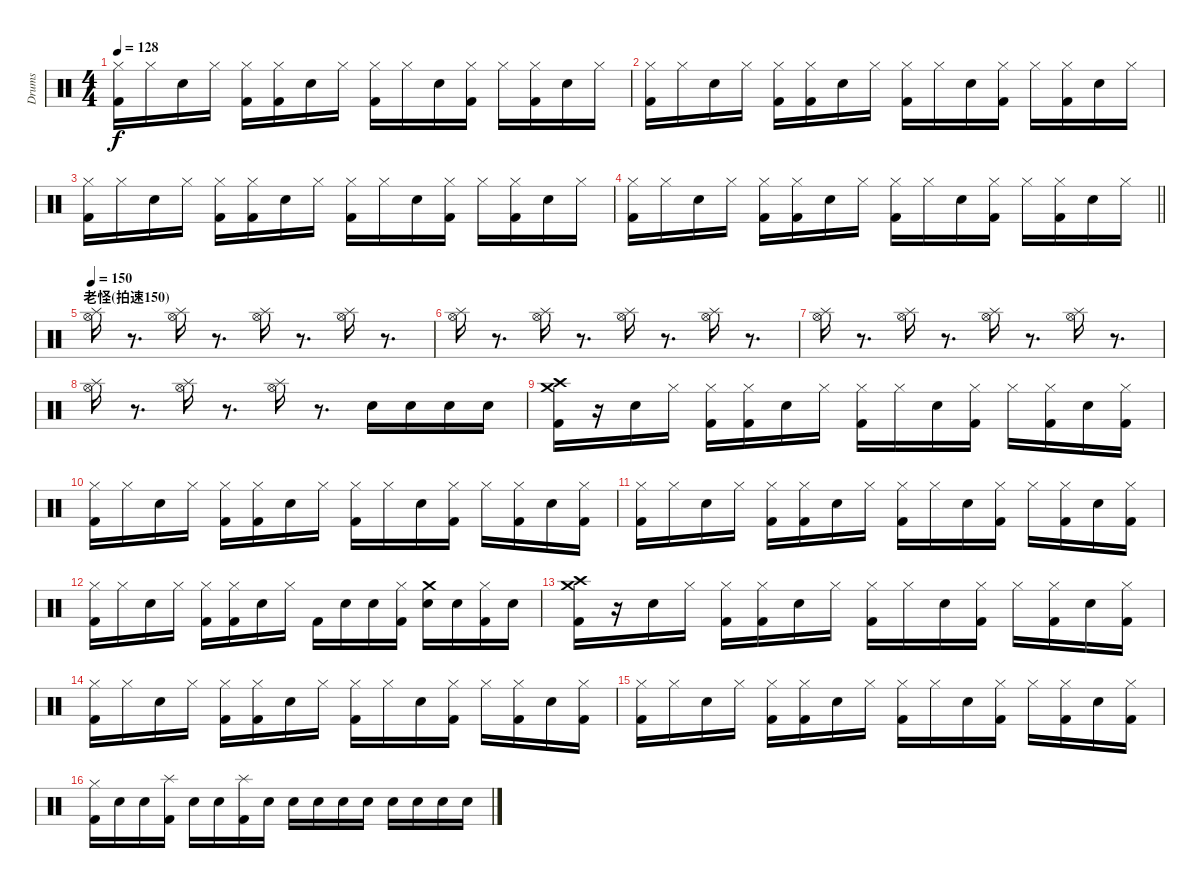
\track ("Drums" "Drums") {instrument percussion}
\staff {score}
\articulation defaults
\ts (4 4)
\tempo 128
\clef neutral
\ks c
("Hi-Hat (closed)" "Kick (hit) 2").16{dy f volume 0} "Hi-Hat (closed)".16 "Snare (hit) 2".16 "Hi-Hat (closed)".16 ("Hi-Hat (closed)" "Kick (hit) 2").16 ("Hi-Hat (closed)" "Kick (hit) 2").16 "Snare (hit) 2".16 "Hi-Hat (closed)".16 ("Hi-Hat (closed)" "Kick (hit) 2").16 "Hi-Hat (closed)".16 "Snare (hit) 2".16 ("Hi-Hat (closed)" "Kick (hit) 2").16 "Hi-Hat (closed)".16 ("Hi-Hat (closed)" "Kick (hit) 2").16 "Snare (hit) 2".16 "Hi-Hat (closed)".16 |
("Hi-Hat (closed)" "Kick (hit) 2").16 "Hi-Hat (closed)".16 "Snare (hit) 2".16 "Hi-Hat (closed)".16 ("Hi-Hat (closed)" "Kick (hit) 2").16 ("Hi-Hat (closed)" "Kick (hit) 2").16 "Snare (hit) 2".16 "Hi-Hat (closed)".16 ("Hi-Hat (closed)" "Kick (hit) 2").16 "Hi-Hat (closed)".16 "Snare (hit) 2".16 ("Hi-Hat (closed)" "Kick (hit) 2").16 "Hi-Hat (closed)".16 ("Hi-Hat (closed)" "Kick (hit) 2").16 "Snare (hit) 2".16 "Hi-Hat (closed)".16 |
("Hi-Hat (closed)" "Kick (hit) 2").16 "Hi-Hat (closed)".16 "Snare (hit) 2".16 "Hi-Hat (closed)".16 ("Hi-Hat (closed)" "Kick (hit) 2").16 ("Hi-Hat (closed)" "Kick (hit) 2").16 "Snare (hit) 2".16 "Hi-Hat (closed)".16 ("Hi-Hat (closed)" "Kick (hit) 2").16 "Hi-Hat (closed)".16 "Snare (hit) 2".16 ("Hi-Hat (closed)" "Kick (hit) 2").16 "Hi-Hat (closed)".16 ("Hi-Hat (closed)" "Kick (hit) 2").16 "Snare (hit) 2".16 "Hi-Hat (closed)".16 |
\barLineRight lightlight
("Hi-Hat (closed)" "Kick (hit) 2").16 "Hi-Hat (closed)".16 "Snare (hit) 2".16 "Hi-Hat (closed)".16 ("Hi-Hat (closed)" "Kick (hit) 2").16 ("Hi-Hat (closed)" "Kick (hit) 2").16 "Snare (hit) 2".16 "Hi-Hat (closed)".16 ("Hi-Hat (closed)" "Kick (hit) 2").16 "Hi-Hat (closed)".16 "Snare (hit) 2".16 ("Hi-Hat (closed)" "Kick (hit) 2").16 "Hi-Hat (closed)".16 ("Hi-Hat (closed)" "Kick (hit) 2").16 "Snare (hit) 2".16 "Hi-Hat (closed)".16 |
\section ("" "老怪(拍速150)")
\tempo 150
("Splash (hit)" "Hi-Hat (open)").16{volume 13} r.8{d} ("Splash (hit)" "Hi-Hat (open)").16 r.8{d} ("Splash (hit)" "Hi-Hat (open)").16 r.8{d} ("Splash (hit)" "Hi-Hat (open)").16 r.8{d} |
("Splash (hit)" "Hi-Hat (open)").16 r.8{d} ("Splash (hit)" "Hi-Hat (open)").16 r.8{d} ("Splash (hit)" "Hi-Hat (open)").16 r.8{d} ("Splash (hit)" "Hi-Hat (open)").16 r.8{d} |
("Splash (hit)" "Hi-Hat (open)").16 r.8{d} ("Splash (hit)" "Hi-Hat (open)").16 r.8{d} ("Splash (hit)" "Hi-Hat (open)").16 r.8{d} ("Splash (hit)" "Hi-Hat (open)").16 r.8{d} |
("Splash (hit)" "Hi-Hat (open)").16 r.8{d} ("Splash (hit)" "Hi-Hat (open)").16 r.8{d} ("Splash (hit)" "Hi-Hat (open)").16 r.8{d} "Snare (hit) 2".16 "Snare (hit) 2".16 "Snare (hit) 2".16 "Snare (hit) 2".16 |
("Crash medium (hit)" "Crash high (hit)" "Kick (hit) 2").16 r.16 "Snare (hit) 2".16 "Hi-Hat (closed)".16 ("Hi-Hat (closed)" "Kick (hit) 2").16 ("Hi-Hat (closed)" "Kick (hit) 2").16 "Snare (hit) 2".16 "Hi-Hat (closed)".16 ("Hi-Hat (closed)" "Kick (hit) 2").16 "Hi-Hat (closed)".16 "Snare (hit) 2".16 ("Hi-Hat (closed)" "Kick (hit) 2").16 "Hi-Hat (closed)".16 ("Hi-Hat (closed)" "Kick (hit) 2").16 "Snare (hit) 2".16 ("Hi-Hat (closed)" "Kick (hit) 2").16 |
("Hi-Hat (closed)" "Kick (hit) 2").16 "Hi-Hat (closed)".16 "Snare (hit) 2".16 "Hi-Hat (closed)".16 ("Hi-Hat (closed)" "Kick (hit) 2").16 ("Hi-Hat (closed)" "Kick (hit) 2").16 "Snare (hit) 2".16 "Hi-Hat (closed)".16 ("Hi-Hat (closed)" "Kick (hit) 2").16 "Hi-Hat (closed)".16 "Snare (hit) 2".16 ("Hi-Hat (closed)" "Kick (hit) 2").16 "Hi-Hat (closed)".16 ("Hi-Hat (closed)" "Kick (hit) 2").16 "Snare (hit) 2".16 ("Hi-Hat (closed)" "Kick (hit) 2").16 |
("Hi-Hat (closed)" "Kick (hit) 2").16 "Hi-Hat (closed)".16 "Snare (hit) 2".16 "Hi-Hat (closed)".16 ("Hi-Hat (closed)" "Kick (hit) 2").16 ("Hi-Hat (closed)" "Kick (hit) 2").16 "Snare (hit) 2".16 "Hi-Hat (closed)".16 ("Hi-Hat (closed)" "Kick (hit) 2").16 "Hi-Hat (closed)".16 "Snare (hit) 2".16 ("Hi-Hat (closed)" "Kick (hit) 2").16 "Hi-Hat (closed)".16 ("Hi-Hat (closed)" "Kick (hit) 2").16 "Snare (hit) 2".16 ("Hi-Hat (closed)" "Kick (hit) 2").16 |
("Hi-Hat (closed)" "Kick (hit) 2").16 "Hi-Hat (closed)".16 "Snare (hit) 2".16 "Hi-Hat (closed)".16 ("Hi-Hat (closed)" "Kick (hit) 2").16 ("Hi-Hat (closed)" "Kick (hit) 2").16 "Snare (hit) 2".16 "Hi-Hat (closed)".16 "Kick (hit) 2".16 "Snare (hit) 2".16 "Snare (hit) 2".16 ("Hi-Hat (closed)" "Kick (hit) 2").16 ("Crash medium (hit)" "Snare (hit) 2").16 "Snare (hit) 2".16 ("Hi-Hat (closed)" "Kick (hit) 2").16 "Snare (hit) 2".16 |
("Crash medium (hit)" "Crash high (hit)" "Kick (hit) 2").16 r.16 "Snare (hit) 2".16 "Hi-Hat (closed)".16 ("Hi-Hat (closed)" "Kick (hit) 2").16 ("Hi-Hat (closed)" "Kick (hit) 2").16 "Snare (hit) 2".16 "Hi-Hat (closed)".16 ("Hi-Hat (closed)" "Kick (hit) 2").16 "Hi-Hat (closed)".16 "Snare (hit) 2".16 ("Hi-Hat (closed)" "Kick (hit) 2").16 "Hi-Hat (closed)".16 ("Hi-Hat (closed)" "Kick (hit) 2").16 "Snare (hit) 2".16 ("Hi-Hat (closed)" "Kick (hit) 2").16 |
("Hi-Hat (closed)" "Kick (hit) 2").16 "Hi-Hat (closed)".16 "Snare (hit) 2".16 "Hi-Hat (closed)".16 ("Hi-Hat (closed)" "Kick (hit) 2").16 ("Hi-Hat (closed)" "Kick (hit) 2").16 "Snare (hit) 2".16 "Hi-Hat (closed)".16 ("Hi-Hat (closed)" "Kick (hit) 2").16 "Hi-Hat (closed)".16 "Snare (hit) 2".16 ("Hi-Hat (closed)" "Kick (hit) 2").16 "Hi-Hat (closed)".16 ("Hi-Hat (closed)" "Kick (hit) 2").16 "Snare (hit) 2".16 ("Hi-Hat (closed)" "Kick (hit) 2").16 |
("Hi-Hat (closed)" "Kick (hit) 2").16 "Hi-Hat (closed)".16 "Snare (hit) 2".16 "Hi-Hat (closed)".16 ("Hi-Hat (closed)" "Kick (hit) 2").16 ("Hi-Hat (closed)" "Kick (hit) 2").16 "Snare (hit) 2".16 "Hi-Hat (closed)".16 ("Hi-Hat (closed)" "Kick (hit) 2").16 "Hi-Hat (closed)".16 "Snare (hit) 2".16 ("Hi-Hat (closed)" "Kick (hit) 2").16 "Hi-Hat (closed)".16 ("Hi-Hat (closed)" "Kick (hit) 2").16 "Snare (hit) 2".16 ("Hi-Hat (closed)" "Kick (hit) 2").16 |
("Hi-Hat (closed)" "Kick (hit) 2").16 "Snare (hit) 2".16 "Snare (hit) 2".16 ("Splash (hit)" "Kick (hit) 2").16 "Snare (hit) 2".16 "Snare (hit) 2".16 ("Splash (hit)" "Kick (hit) 2").16 "Snare (hit) 2".16 "Snare (hit) 2".16 "Snare (hit) 2".16 "Snare (hit) 2".16 "Snare (hit) 2".16 "Snare (hit) 2".16 "Snare (hit) 2".16 "Snare (hit) 2".16 "Snare (hit) 2".16
